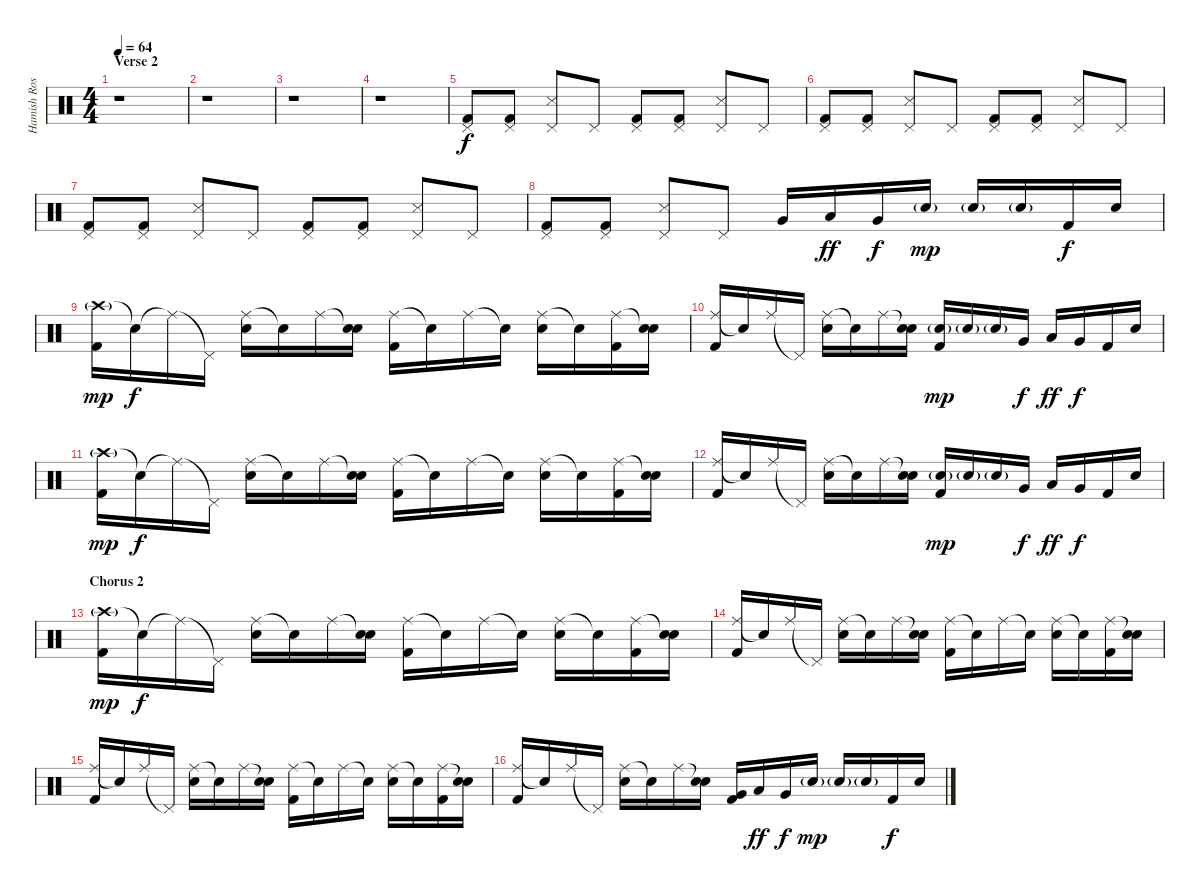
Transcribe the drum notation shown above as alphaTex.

\track ("Hamish Rosser" "Hamish Ros") {instrument percussion}
\staff {score}
\articulation defaults
\ts (4 4)
\section ("" "Verse 2")
\tempo 64
\clef neutral
\ks c
r.1{dy f} |
r.1 |
r.1 |
r.1 |
("Pedal Hi-Hat (hit)" "Kick (hit) 2").8 ("Pedal Hi-Hat (hit)" "Kick (hit) 2").8 ("Pedal Hi-Hat (hit)" "Snare (side stick) 3").8 "Pedal Hi-Hat (hit)".8 ("Pedal Hi-Hat (hit)" "Kick (hit) 2").8 ("Pedal Hi-Hat (hit)" "Kick (hit) 2").8 ("Pedal Hi-Hat (hit)" "Snare (side stick) 3").8 "Pedal Hi-Hat (hit)".8 |
("Pedal Hi-Hat (hit)" "Kick (hit) 2").8 ("Pedal Hi-Hat (hit)" "Kick (hit) 2").8 ("Pedal Hi-Hat (hit)" "Snare (side stick) 3").8 "Pedal Hi-Hat (hit)".8 ("Pedal Hi-Hat (hit)" "Kick (hit) 2").8 ("Pedal Hi-Hat (hit)" "Kick (hit) 2").8 ("Pedal Hi-Hat (hit)" "Snare (side stick) 3").8 "Pedal Hi-Hat (hit)".8 |
("Pedal Hi-Hat (hit)" "Kick (hit) 2").8 ("Pedal Hi-Hat (hit)" "Kick (hit) 2").8 ("Pedal Hi-Hat (hit)" "Snare (side stick) 3").8 "Pedal Hi-Hat (hit)".8 ("Pedal Hi-Hat (hit)" "Kick (hit) 2").8 ("Pedal Hi-Hat (hit)" "Kick (hit) 2").8 ("Pedal Hi-Hat (hit)" "Snare (side stick) 3").8 "Pedal Hi-Hat (hit)".8 |
("Pedal Hi-Hat (hit)" "Kick (hit) 2").8 ("Pedal Hi-Hat (hit)" "Kick (hit) 2").8 ("Pedal Hi-Hat (hit)" "Snare (side stick) 3").8 "Pedal Hi-Hat (hit)".8 "Very Low Tom (hit)".16 "Low Tom (hit)".16{dy ff} "Very Low Tom (hit)".16{dy f} "Electric Snare (hit)"{g}.16{dy mp} "Electric Snare (hit)"{g}.16 "Electric Snare (hit)"{g}.16 "Kick (hit) 2".16{dy f} "Electric Snare (hit)".16 |
("Crash high (hit)"{g} "Kick (hit) 2").16{dy mp} "Snare (hit)"{t}.16{dy f} "Ride (middle)"{t}.16 "Pedal Hi-Hat (hit)"{t}.16 ("Ride (middle)" "Electric Snare (hit)").16 "Snare (hit)"{t}.16 "Ride (middle)".16 ("Snare (hit)"{t} "Electric Snare (hit)").16 ("Ride (middle)" "Kick (hit) 2").16 "Snare (hit)"{t}.16 "Ride (middle)".16 "Snare (hit)"{t}.16 ("Ride (middle)" "Electric Snare (hit)").16 "Snare (hit)"{t}.16 ("Ride (middle)" "Kick (hit) 2").16 ("Snare (hit)"{t} "Electric Snare (hit)").16 |
("Ride (middle)" "Kick (hit) 2").16 "Snare (hit)"{t}.16 "Ride (middle)".16 "Pedal Hi-Hat (hit)"{t}.16 ("Ride (middle)" "Electric Snare (hit)").16 "Snare (hit)"{t}.16 "Ride (middle)".16 ("Snare (hit)"{t} "Electric Snare (hit)").16 ("Electric Snare (hit)"{g} "Kick (hit) 2").16{dy mp} "Electric Snare (hit)"{g}.16 "Electric Snare (hit)"{g}.16 "Very Low Tom (hit)".16{dy f} "Low Tom (hit)".16{dy ff} "Very Low Tom (hit)".16{dy f} "Kick (hit) 2".16 "Electric Snare (hit)".16 |
("Crash high (hit)"{g} "Kick (hit) 2").16{dy mp} "Snare (hit)"{t}.16{dy f} "Ride (middle)"{t}.16 "Pedal Hi-Hat (hit)"{t}.16 ("Ride (middle)" "Electric Snare (hit)").16 "Snare (hit)"{t}.16 "Ride (middle)".16 ("Snare (hit)"{t} "Electric Snare (hit)").16 ("Ride (middle)" "Kick (hit) 2").16 "Snare (hit)"{t}.16 "Ride (middle)".16 "Snare (hit)"{t}.16 ("Ride (middle)" "Electric Snare (hit)").16 "Snare (hit)"{t}.16 ("Ride (middle)" "Kick (hit) 2").16 ("Snare (hit)"{t} "Electric Snare (hit)").16 |
("Ride (middle)" "Kick (hit) 2").16 "Snare (hit)"{t}.16 "Ride (middle)".16 "Pedal Hi-Hat (hit)"{t}.16 ("Ride (middle)" "Electric Snare (hit)").16 "Snare (hit)"{t}.16 "Ride (middle)".16 ("Snare (hit)"{t} "Electric Snare (hit)").16 ("Electric Snare (hit)"{g} "Kick (hit) 2").16{dy mp} "Electric Snare (hit)"{g}.16 "Electric Snare (hit)"{g}.16 "Very Low Tom (hit)".16{dy f} "Low Tom (hit)".16{dy ff} "Very Low Tom (hit)".16{dy f} "Kick (hit) 2".16 "Electric Snare (hit)".16 |
\section ("" "Chorus 2")
("Crash high (hit)"{g} "Kick (hit) 2").16{dy mp} "Snare (hit)"{t}.16{dy f} "Ride (middle)"{t}.16 "Pedal Hi-Hat (hit)"{t}.16 ("Ride (middle)" "Electric Snare (hit)").16 "Snare (hit)"{t}.16 "Ride (middle)".16 ("Snare (hit)"{t} "Electric Snare (hit)").16 ("Ride (middle)" "Kick (hit) 2").16 "Snare (hit)"{t}.16 "Ride (middle)".16 "Snare (hit)"{t}.16 ("Ride (middle)" "Electric Snare (hit)").16 "Snare (hit)"{t}.16 ("Ride (middle)" "Kick (hit) 2").16 ("Snare (hit)"{t} "Electric Snare (hit)").16 |
("Ride (middle)" "Kick (hit) 2").16 "Snare (hit)"{t}.16 "Ride (middle)".16 "Pedal Hi-Hat (hit)"{t}.16 ("Ride (middle)" "Electric Snare (hit)").16 "Snare (hit)"{t}.16 "Ride (middle)".16 ("Snare (hit)"{t} "Electric Snare (hit)").16 ("Ride (middle)" "Kick (hit) 2").16 "Snare (hit)"{t}.16 "Ride (middle)".16 "Snare (hit)"{t}.16 ("Ride (middle)" "Electric Snare (hit)").16 "Snare (hit)"{t}.16 ("Ride (middle)" "Kick (hit) 2").16 ("Snare (hit)"{t} "Electric Snare (hit)").16 |
("Ride (middle)" "Kick (hit) 2").16 "Snare (hit)"{t}.16 "Ride (middle)".16 "Pedal Hi-Hat (hit)"{t}.16 ("Ride (middle)" "Electric Snare (hit)").16 "Snare (hit)"{t}.16 "Ride (middle)".16 ("Snare (hit)"{t} "Electric Snare (hit)").16 ("Ride (middle)" "Kick (hit) 2").16 "Snare (hit)"{t}.16 "Ride (middle)".16 "Snare (hit)"{t}.16 ("Ride (middle)" "Electric Snare (hit)").16 "Snare (hit)"{t}.16 ("Ride (middle)" "Kick (hit) 2").16 ("Snare (hit)"{t} "Electric Snare (hit)").16 |
("Ride (middle)" "Kick (hit) 2").16 "Snare (hit)"{t}.16 "Ride (middle)".16 "Pedal Hi-Hat (hit)"{t}.16 ("Ride (middle)" "Electric Snare (hit)").16 "Snare (hit)"{t}.16 "Ride (middle)".16 ("Snare (hit)"{t} "Electric Snare (hit)").16 ("Very Low Tom (hit)" "Kick (hit) 2").16 "Low Tom (hit)".16{dy ff} "Very Low Tom (hit)".16{dy f} "Electric Snare (hit)"{g}.16{dy mp} "Electric Snare (hit)"{g}.16 "Electric Snare (hit)"{g}.16 "Kick (hit) 2".16{dy f} "Electric Snare (hit)".16
